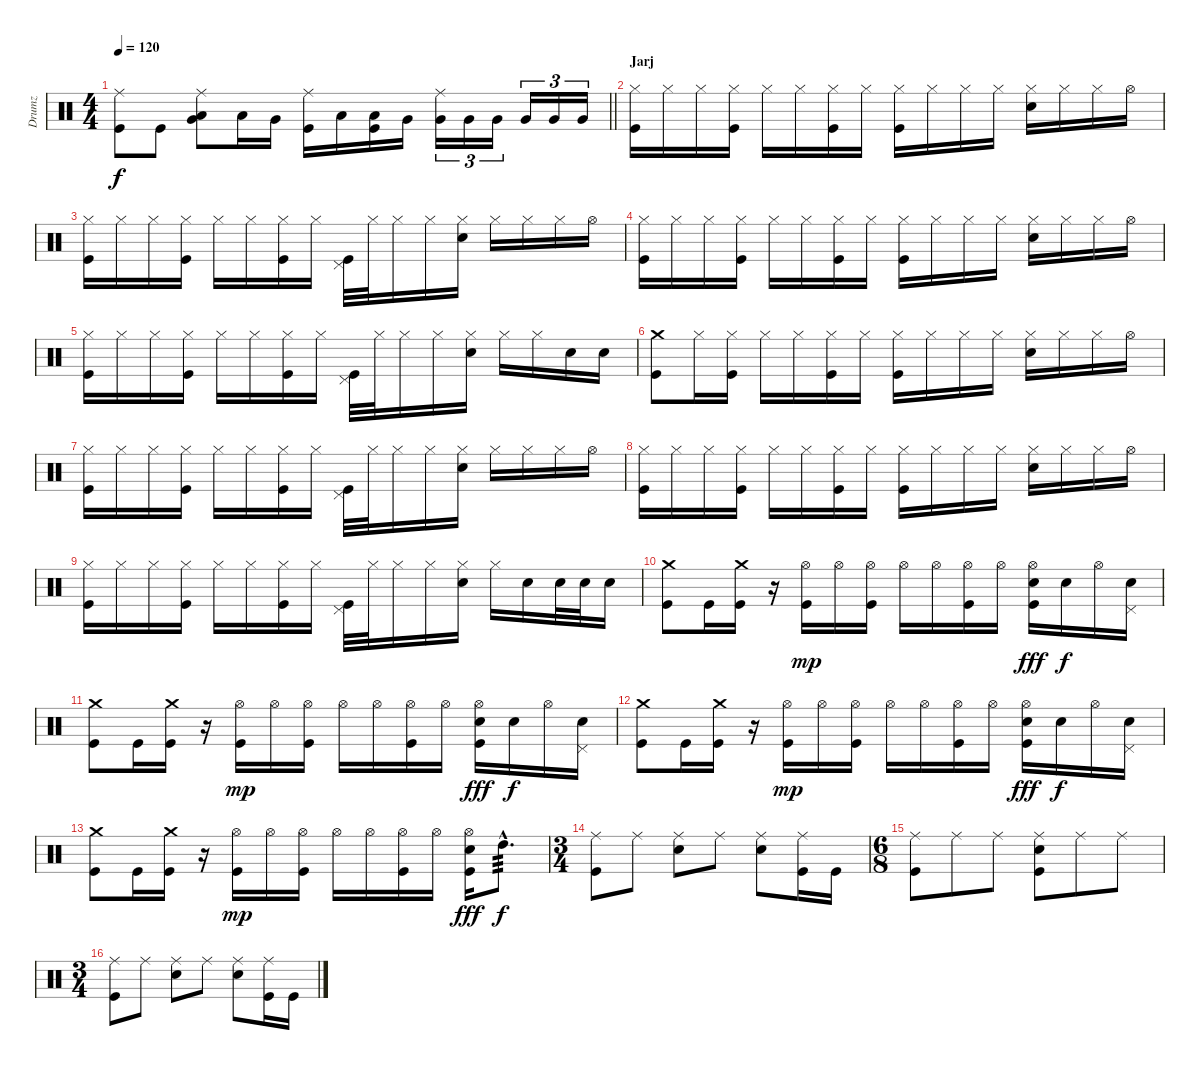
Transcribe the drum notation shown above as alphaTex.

\track ("Drumz" "Drumz") {instrument percussion}
\staff {score}
\articulation defaults
\ts (4 4)
\tempo 120
\clef neutral
\barLineRight lightlight
\ks c
("Ride (middle)" "Kick (hit)").8{dy f} "Kick (hit)".8 ("Ride (middle)" "Low Tom (hit)" "Very Low Tom (hit)").8 "Low Floor Tom (hit)".16 "Very Low Tom (hit)".16 ("Ride (middle)" "Kick (hit)").16 "Low Tom (hit)".16 ("Low Tom (hit)" "Kick (hit)").16 "Very Low Tom (hit)".16 ("Ride (middle)" "Very Low Tom (hit)").16{tu (3 2)} "Very Low Tom (hit)".16{tu (3 2)} "Very Low Tom (hit)".16{tu (3 2)} "Very Low Tom (hit)".16{tu (3 2)} "Very Low Tom (hit)".16{tu (3 2)} "Very Low Tom (hit)".16{tu (3 2)} |
\section ("" "Jarj")
("Hi-Hat (closed)" "Kick (hit)").16 "Hi-Hat (closed)".16 "Hi-Hat (closed)".16 ("Hi-Hat (closed)" "Kick (hit)").16 "Hi-Hat (closed)".16 "Hi-Hat (closed)".16 ("Hi-Hat (closed)" "Kick (hit)").16 "Hi-Hat (closed)".16 ("Hi-Hat (closed)" "Kick (hit)").16 "Hi-Hat (closed)".16 "Hi-Hat (closed)".16 "Hi-Hat (closed)".16 ("Hi-Hat (closed)" "Electric Snare (hit)").16 "Hi-Hat (closed)".16 "Hi-Hat (closed)".16 "Hi-Hat (open)".16 |
("Hi-Hat (closed)" "Kick (hit)").16 "Hi-Hat (closed)".16 "Hi-Hat (closed)".16 ("Hi-Hat (closed)" "Kick (hit)").16 "Hi-Hat (closed)".16 "Hi-Hat (closed)".16 ("Hi-Hat (closed)" "Kick (hit)").16 "Hi-Hat (closed)".16 ("Pedal Hi-Hat (hit)" "Kick (hit)").32 "Hi-Hat (closed)".32 "Hi-Hat (closed)".16 "Hi-Hat (closed)".16 ("Hi-Hat (closed)" "Electric Snare (hit)").16 "Hi-Hat (closed)".16 "Hi-Hat (closed)".16 "Hi-Hat (closed)".16 "Hi-Hat (open)".16 |
("Hi-Hat (closed)" "Kick (hit)").16 "Hi-Hat (closed)".16 "Hi-Hat (closed)".16 ("Hi-Hat (closed)" "Kick (hit)").16 "Hi-Hat (closed)".16 "Hi-Hat (closed)".16 ("Hi-Hat (closed)" "Kick (hit)").16 "Hi-Hat (closed)".16 ("Hi-Hat (closed)" "Kick (hit)").16 "Hi-Hat (closed)".16 "Hi-Hat (closed)".16 "Hi-Hat (closed)".16 ("Hi-Hat (closed)" "Electric Snare (hit)").16 "Hi-Hat (closed)".16 "Hi-Hat (closed)".16 "Hi-Hat (open)".16 |
("Hi-Hat (closed)" "Kick (hit)").16 "Hi-Hat (closed)".16 "Hi-Hat (closed)".16 ("Hi-Hat (closed)" "Kick (hit)").16 "Hi-Hat (closed)".16 "Hi-Hat (closed)".16 ("Hi-Hat (closed)" "Kick (hit)").16 "Hi-Hat (closed)".16 ("Pedal Hi-Hat (hit)" "Kick (hit)").32 "Hi-Hat (closed)".32 "Hi-Hat (closed)".16 "Hi-Hat (closed)".16 ("Hi-Hat (closed)" "Electric Snare (hit)").16 "Hi-Hat (closed)".16 "Hi-Hat (closed)".16 "Electric Snare (hit)".16 "Electric Snare (hit)".16 |
("Crash medium (hit)" "Kick (hit)").8 "Hi-Hat (closed)".16 ("Hi-Hat (closed)" "Kick (hit)").16 "Hi-Hat (closed)".16 "Hi-Hat (closed)".16 ("Hi-Hat (closed)" "Kick (hit)").16 "Hi-Hat (closed)".16 ("Hi-Hat (closed)" "Kick (hit)").16 "Hi-Hat (closed)".16 "Hi-Hat (closed)".16 "Hi-Hat (closed)".16 ("Hi-Hat (closed)" "Electric Snare (hit)").16 "Hi-Hat (closed)".16 "Hi-Hat (closed)".16 "Hi-Hat (open)".16 |
("Hi-Hat (closed)" "Kick (hit)").16 "Hi-Hat (closed)".16 "Hi-Hat (closed)".16 ("Hi-Hat (closed)" "Kick (hit)").16 "Hi-Hat (closed)".16 "Hi-Hat (closed)".16 ("Hi-Hat (closed)" "Kick (hit)").16 "Hi-Hat (closed)".16 ("Pedal Hi-Hat (hit)" "Kick (hit)").32 "Hi-Hat (closed)".32 "Hi-Hat (closed)".16 "Hi-Hat (closed)".16 ("Hi-Hat (closed)" "Electric Snare (hit)").16 "Hi-Hat (closed)".16 "Hi-Hat (closed)".16 "Hi-Hat (closed)".16 "Hi-Hat (open)".16 |
("Hi-Hat (closed)" "Kick (hit)").16 "Hi-Hat (closed)".16 "Hi-Hat (closed)".16 ("Hi-Hat (closed)" "Kick (hit)").16 "Hi-Hat (closed)".16 "Hi-Hat (closed)".16 ("Hi-Hat (closed)" "Kick (hit)").16 "Hi-Hat (closed)".16 ("Hi-Hat (closed)" "Kick (hit)").16 "Hi-Hat (closed)".16 "Hi-Hat (closed)".16 "Hi-Hat (closed)".16 ("Hi-Hat (closed)" "Electric Snare (hit)").16 "Hi-Hat (closed)".16 "Hi-Hat (closed)".16 "Hi-Hat (open)".16 |
("Hi-Hat (closed)" "Kick (hit)").16 "Hi-Hat (closed)".16 "Hi-Hat (closed)".16 ("Hi-Hat (closed)" "Kick (hit)").16 "Hi-Hat (closed)".16 "Hi-Hat (closed)".16 ("Hi-Hat (closed)" "Kick (hit)").16 "Hi-Hat (closed)".16 ("Pedal Hi-Hat (hit)" "Kick (hit)").32 "Hi-Hat (closed)".32 "Hi-Hat (closed)".16 "Hi-Hat (closed)".16 ("Hi-Hat (closed)" "Electric Snare (hit)").16 "Hi-Hat (closed)".16 "Electric Snare (hit)".16 "Electric Snare (hit)".32 "Electric Snare (hit)".32 "Electric Snare (hit)".16 |
("Crash medium (hit)" "Kick (hit)").8 "Kick (hit)".16 ("Crash medium (hit)" "Kick (hit)").16 r.16 ("Hi-Hat (open)" "Kick (hit)").16{dy mp} "Hi-Hat (open)".16 ("Hi-Hat (open)" "Kick (hit)").16 "Hi-Hat (open)".16 "Hi-Hat (open)".16 ("Hi-Hat (open)" "Kick (hit)").16 "Hi-Hat (open)".16 ("Hi-Hat (open)" "Electric Snare (hit)" "Kick (hit)").16{dy fff} "Electric Snare (hit)".16{dy f} "Hi-Hat (open)".16 ("Pedal Hi-Hat (hit)" "Electric Snare (hit)").16 |
("Crash medium (hit)" "Kick (hit)").8 "Kick (hit)".16 ("Crash medium (hit)" "Kick (hit)").16 r.16 ("Hi-Hat (open)" "Kick (hit)").16{dy mp} "Hi-Hat (open)".16 ("Hi-Hat (open)" "Kick (hit)").16 "Hi-Hat (open)".16 "Hi-Hat (open)".16 ("Hi-Hat (open)" "Kick (hit)").16 "Hi-Hat (open)".16 ("Hi-Hat (open)" "Electric Snare (hit)" "Kick (hit)").16{dy fff} "Electric Snare (hit)".16{dy f} "Hi-Hat (open)".16 ("Pedal Hi-Hat (hit)" "Electric Snare (hit)").16 |
("Crash medium (hit)" "Kick (hit)").8 "Kick (hit)".16 ("Crash medium (hit)" "Kick (hit)").16 r.16 ("Hi-Hat (open)" "Kick (hit)").16{dy mp} "Hi-Hat (open)".16 ("Hi-Hat (open)" "Kick (hit)").16 "Hi-Hat (open)".16 "Hi-Hat (open)".16 ("Hi-Hat (open)" "Kick (hit)").16 "Hi-Hat (open)".16 ("Hi-Hat (open)" "Electric Snare (hit)" "Kick (hit)").16{dy fff} "Electric Snare (hit)".16{dy f} "Hi-Hat (open)".16 ("Pedal Hi-Hat (hit)" "Electric Snare (hit)").16 |
("Crash medium (hit)" "Kick (hit)").8 "Kick (hit)".16 ("Crash medium (hit)" "Kick (hit)").16 r.16 ("Hi-Hat (open)" "Kick (hit)").16{dy mp} "Hi-Hat (open)".16 ("Hi-Hat (open)" "Kick (hit)").16 "Hi-Hat (open)".16 "Hi-Hat (open)".16 ("Hi-Hat (open)" "Kick (hit)").16 "Hi-Hat (open)".16 ("Hi-Hat (open)" "Electric Snare (hit)" "Kick (hit)").16{dy fff} "High Tom (hit)"{hac}.8{d tp 3 dy f} |
\ts (3 4)
("Ride (middle)" "Kick (hit)").8 "Ride (middle)".8 ("Ride (middle)" "Electric Snare (hit)").8 "Ride (middle)".8 ("Ride (middle)" "Electric Snare (hit)").8 ("Ride (middle)" "Kick (hit)").16 "Kick (hit)".16 |
\ts (6 8)
("Ride (middle)" "Kick (hit)").8 "Ride (middle)".8 "Ride (middle)".8 ("Ride (middle)" "Electric Snare (hit)" "Kick (hit)").8 "Ride (middle)".8 "Ride (middle)".8 |
\ts (3 4)
("Ride (middle)" "Kick (hit)").8 "Ride (middle)".8 ("Ride (middle)" "Electric Snare (hit)").8 "Ride (middle)".8 ("Ride (middle)" "Electric Snare (hit)").8 ("Ride (middle)" "Kick (hit)").16 "Kick (hit)".16
